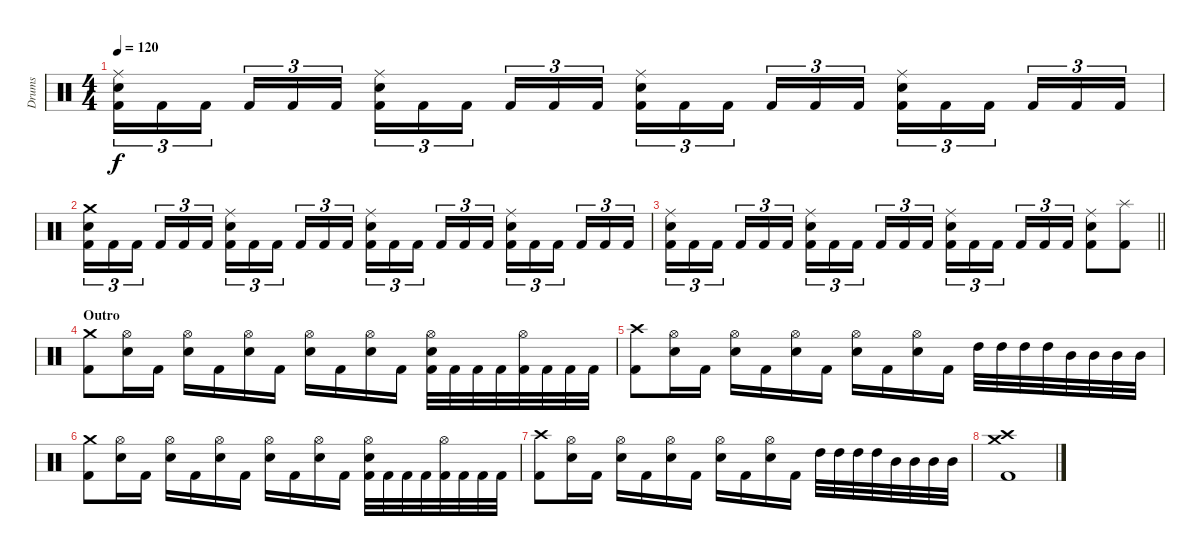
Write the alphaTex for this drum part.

\track ("Drums" "Drums") {instrument percussion}
\staff {score}
\articulation defaults
\ts (4 4)
\tempo 120
\clef neutral
\ks c
("Ride (middle)" "Electric Snare (hit)" "Kick (hit) 2").16{tu (3 2) dy f} "Kick (hit) 2".16{tu (3 2)} "Kick (hit) 2".16{tu (3 2)} "Kick (hit) 2".16{tu (3 2)} "Kick (hit) 2".16{tu (3 2)} "Kick (hit) 2".16{tu (3 2)} ("Ride (middle)" "Electric Snare (hit)" "Kick (hit) 2").16{tu (3 2)} "Kick (hit) 2".16{tu (3 2)} "Kick (hit) 2".16{tu (3 2)} "Kick (hit) 2".16{tu (3 2)} "Kick (hit) 2".16{tu (3 2)} "Kick (hit) 2".16{tu (3 2)} ("Ride (middle)" "Electric Snare (hit)" "Kick (hit) 2").16{tu (3 2)} "Kick (hit) 2".16{tu (3 2)} "Kick (hit) 2".16{tu (3 2)} "Kick (hit) 2".16{tu (3 2)} "Kick (hit) 2".16{tu (3 2)} "Kick (hit) 2".16{tu (3 2)} ("Ride (middle)" "Electric Snare (hit)" "Kick (hit) 2").16{tu (3 2)} "Kick (hit) 2".16{tu (3 2)} "Kick (hit) 2".16{tu (3 2)} "Kick (hit) 2".16{tu (3 2)} "Kick (hit) 2".16{tu (3 2)} "Kick (hit) 2".16{tu (3 2)} |
("Crash medium (hit)" "Electric Snare (hit)" "Kick (hit) 2").16{tu (3 2)} "Kick (hit) 2".16{tu (3 2)} "Kick (hit) 2".16{tu (3 2)} "Kick (hit) 2".16{tu (3 2)} "Kick (hit) 2".16{tu (3 2)} "Kick (hit) 2".16{tu (3 2)} ("Ride (middle)" "Electric Snare (hit)" "Kick (hit) 2").16{tu (3 2)} "Kick (hit) 2".16{tu (3 2)} "Kick (hit) 2".16{tu (3 2)} "Kick (hit) 2".16{tu (3 2)} "Kick (hit) 2".16{tu (3 2)} "Kick (hit) 2".16{tu (3 2)} ("Ride (middle)" "Electric Snare (hit)" "Kick (hit) 2").16{tu (3 2)} "Kick (hit) 2".16{tu (3 2)} "Kick (hit) 2".16{tu (3 2)} "Kick (hit) 2".16{tu (3 2)} "Kick (hit) 2".16{tu (3 2)} "Kick (hit) 2".16{tu (3 2)} ("Ride (middle)" "Electric Snare (hit)" "Kick (hit) 2").16{tu (3 2)} "Kick (hit) 2".16{tu (3 2)} "Kick (hit) 2".16{tu (3 2)} "Kick (hit) 2".16{tu (3 2)} "Kick (hit) 2".16{tu (3 2)} "Kick (hit) 2".16{tu (3 2)} |
\barLineRight lightlight
("Ride (middle)" "Electric Snare (hit)" "Kick (hit) 2").16{tu (3 2)} "Kick (hit) 2".16{tu (3 2)} "Kick (hit) 2".16{tu (3 2)} "Kick (hit) 2".16{tu (3 2)} "Kick (hit) 2".16{tu (3 2)} "Kick (hit) 2".16{tu (3 2)} ("Ride (middle)" "Electric Snare (hit)" "Kick (hit) 2").16{tu (3 2)} "Kick (hit) 2".16{tu (3 2)} "Kick (hit) 2".16{tu (3 2)} "Kick (hit) 2".16{tu (3 2)} "Kick (hit) 2".16{tu (3 2)} "Kick (hit) 2".16{tu (3 2)} ("Ride (middle)" "Electric Snare (hit)" "Kick (hit) 2").16{tu (3 2)} "Kick (hit) 2".16{tu (3 2)} "Kick (hit) 2".16{tu (3 2)} "Kick (hit) 2".16{tu (3 2)} "Kick (hit) 2".16{tu (3 2)} "Kick (hit) 2".16{tu (3 2)} ("Ride (middle)" "Electric Snare (hit)" "Kick (hit) 2").8 ("Splash (hit)" "Kick (hit) 2").8 |
\section ("" "Outro")
("Crash medium (hit)" "Kick (hit) 2").8 ("Hi-Hat (open)" "Electric Snare (hit)").16 "Kick (hit) 2".16 ("Hi-Hat (open)" "Electric Snare (hit)").16 "Kick (hit) 2".16 ("Hi-Hat (open)" "Electric Snare (hit)").16 "Kick (hit) 2".16 ("Hi-Hat (open)" "Electric Snare (hit)").16 "Kick (hit) 2".16 ("Hi-Hat (open)" "Electric Snare (hit)").16 "Kick (hit) 2".16 ("Hi-Hat (open)" "Electric Snare (hit)" "Kick (hit) 2").32 "Kick (hit) 2".32 "Kick (hit) 2".32 "Kick (hit) 2".32 ("Hi-Hat (open)" "Kick (hit) 2").32 "Kick (hit) 2".32 "Kick (hit) 2".32 "Kick (hit) 2".32 |
("Crash high (hit)" "Kick (hit) 2").8 ("Hi-Hat (open)" "Electric Snare (hit)").16 "Kick (hit) 2".16 ("Hi-Hat (open)" "Electric Snare (hit)").16 "Kick (hit) 2".16 ("Hi-Hat (open)" "Electric Snare (hit)").16 "Kick (hit) 2".16 ("Hi-Hat (open)" "Electric Snare (hit)").16 "Kick (hit) 2".16 ("Hi-Hat (open)" "Electric Snare (hit)").16 "Kick (hit) 2".16 "High Tom (hit)".32 "High Tom (hit)".32 "High Tom (hit)".32 "High Tom (hit)".32 "Mid Tom (hit)".32 "Mid Tom (hit)".32 "Mid Tom (hit)".32 "Mid Tom (hit)".32 |
("Crash medium (hit)" "Kick (hit) 2").8 ("Hi-Hat (open)" "Electric Snare (hit)").16 "Kick (hit) 2".16 ("Hi-Hat (open)" "Electric Snare (hit)").16 "Kick (hit) 2".16 ("Hi-Hat (open)" "Electric Snare (hit)").16 "Kick (hit) 2".16 ("Hi-Hat (open)" "Electric Snare (hit)").16 "Kick (hit) 2".16 ("Hi-Hat (open)" "Electric Snare (hit)").16 "Kick (hit) 2".16 ("Hi-Hat (open)" "Electric Snare (hit)" "Kick (hit) 2").32 "Kick (hit) 2".32 "Kick (hit) 2".32 "Kick (hit) 2".32 ("Hi-Hat (open)" "Kick (hit) 2").32 "Kick (hit) 2".32 "Kick (hit) 2".32 "Kick (hit) 2".32 |
("Crash high (hit)" "Kick (hit) 2").8 ("Hi-Hat (open)" "Electric Snare (hit)").16 "Kick (hit) 2".16 ("Hi-Hat (open)" "Electric Snare (hit)").16 "Kick (hit) 2".16 ("Hi-Hat (open)" "Electric Snare (hit)").16 "Kick (hit) 2".16 ("Hi-Hat (open)" "Electric Snare (hit)").16 "Kick (hit) 2".16 ("Hi-Hat (open)" "Electric Snare (hit)").16 "Kick (hit) 2".16 "High Tom (hit)".32 "High Tom (hit)".32 "High Tom (hit)".32 "High Tom (hit)".32 "Mid Tom (hit)".32 "Mid Tom (hit)".32 "Mid Tom (hit)".32 "Mid Tom (hit)".32 |
("Crash medium (hit)" "Crash high (hit)" "Kick (hit) 2").1
